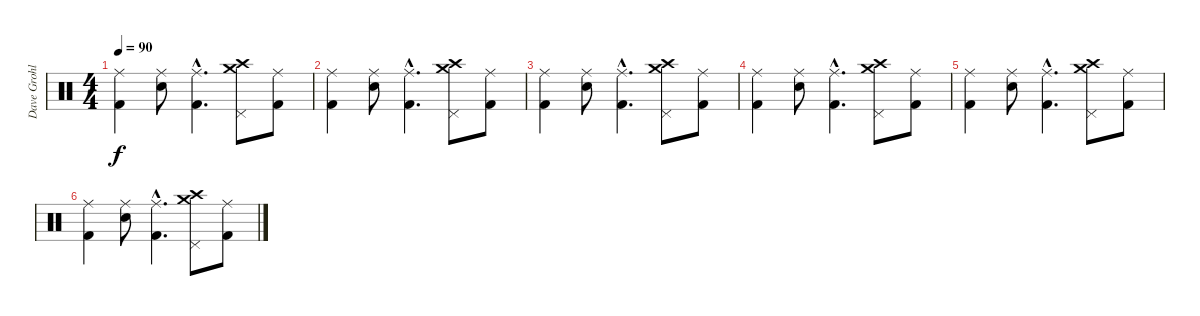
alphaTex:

\track ("Dave Grohl" "Dave Grohl") {instrument percussion}
\staff {score}
\articulation defaults
\ts (4 4)
\tempo 90
\clef neutral
\ks c
("Ride (middle)" "Kick (hit) 2").4{dy f} ("Ride (middle)" "Electric Snare (hit)").8 ("Ride (middle)"{hac} "Kick (hit) 2"{hac}).4{d} ("Pedal Hi-Hat (hit)" "Crash high (hit)" "Crash medium (hit)").8 ("Ride (middle)" "Kick (hit) 2").8 |
("Ride (middle)" "Kick (hit) 2").4 ("Ride (middle)" "Electric Snare (hit)").8 ("Ride (middle)"{hac} "Kick (hit) 2"{hac}).4{d} ("Pedal Hi-Hat (hit)" "Crash high (hit)" "Crash medium (hit)").8 ("Ride (middle)" "Kick (hit) 2").8 |
("Ride (middle)" "Kick (hit) 2").4 ("Ride (middle)" "Electric Snare (hit)").8 ("Ride (middle)"{hac} "Kick (hit) 2"{hac}).4{d} ("Pedal Hi-Hat (hit)" "Crash high (hit)" "Crash medium (hit)").8 ("Ride (middle)" "Kick (hit) 2").8 |
("Ride (middle)" "Kick (hit) 2").4 ("Ride (middle)" "Electric Snare (hit)").8 ("Ride (middle)"{hac} "Kick (hit) 2"{hac}).4{d} ("Pedal Hi-Hat (hit)" "Crash high (hit)" "Crash medium (hit)").8 ("Ride (middle)" "Kick (hit) 2").8 |
("Ride (middle)" "Kick (hit) 2").4 ("Ride (middle)" "Electric Snare (hit)").8 ("Ride (middle)"{hac} "Kick (hit) 2"{hac}).4{d} ("Pedal Hi-Hat (hit)" "Crash high (hit)" "Crash medium (hit)").8 ("Ride (middle)" "Kick (hit) 2").8 |
("Ride (middle)" "Kick (hit) 2").4 ("Ride (middle)" "Electric Snare (hit)").8 ("Ride (middle)"{hac} "Kick (hit) 2"{hac}).4{d} ("Pedal Hi-Hat (hit)" "Crash high (hit)" "Crash medium (hit)").8 ("Ride (middle)" "Kick (hit) 2").8
